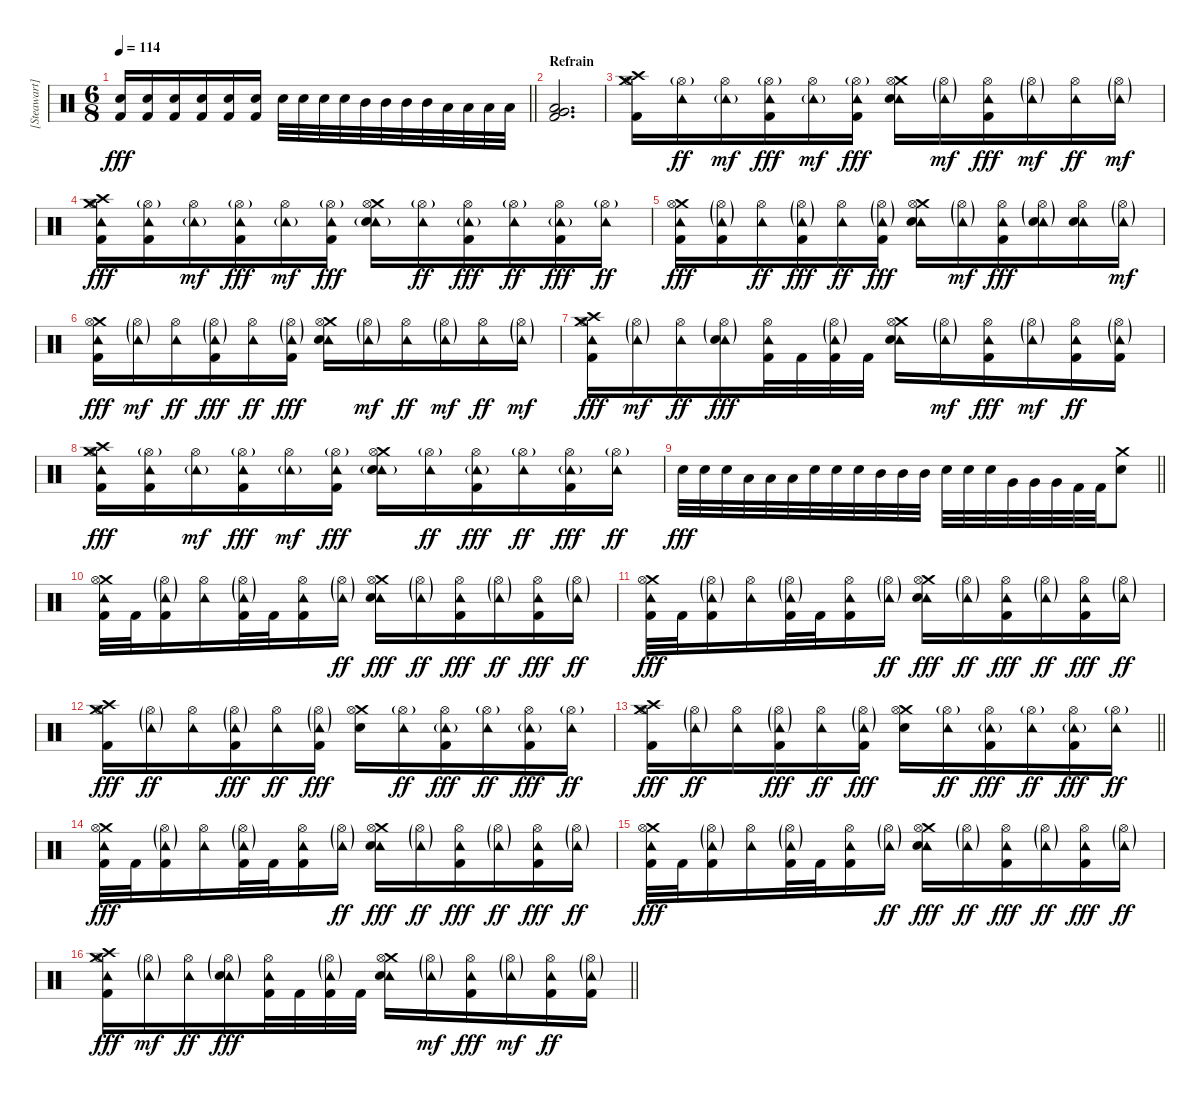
\track ("[Steawart] Drums" "[Steawart]") {solo instrument percussion}
\staff {score}
\articulation defaults
\ts (6 8)
\tempo 114
\clef neutral
\barLineRight lightlight
\ks c
("Electric Snare (hit)" "Kick (hit) 2").16{dy fff} ("Electric Snare (hit)" "Kick (hit) 2").16 ("Electric Snare (hit)" "Kick (hit) 2").16 ("Electric Snare (hit)" "Kick (hit) 2").16 ("Electric Snare (hit)" "Kick (hit) 2").16 ("Electric Snare (hit)" "Kick (hit) 2").16 "Electric Snare (hit)".32 "Electric Snare (hit)".32 "Electric Snare (hit)".32 "Electric Snare (hit)".32 "Mid Tom (hit)".32 "Mid Tom (hit)".32 "Mid Tom (hit)".32 "Mid Tom (hit)".32 "Low Tom (hit)".32 "Low Tom (hit)".32 "Low Tom (hit)".32 "Low Tom (hit)".32 |
\section ("" "Refrain ")
("Low Tom (hit)" "Very Low Tom (hit)" "Kick (hit) 2").2{d} |
("Crash medium (hit)" "Hi-Hat (open)" "Crash high (hit)" "Kick (hit) 2").16 ("Hi-Hat (open)"{g} "Tambourine (hit)").16{dy ff} ("Hi-Hat (open)" "Tambourine (hit)"{g}).16{dy mf} ("Hi-Hat (open)"{g} "Tambourine (hit)" "Kick (hit) 2").16{dy fff} ("Hi-Hat (open)" "Tambourine (hit)"{g}).16{dy mf} ("Hi-Hat (open)"{g} "Tambourine (hit)" "Kick (hit) 2").16{dy fff} ("Crash medium (hit)" "Hi-Hat (open)" "Tambourine (hit)" "Electric Snare (hit)").16 ("Hi-Hat (open)"{g} "Tambourine (hit)"{g}).16{dy mf} ("Hi-Hat (open)" "Tambourine (hit)" "Kick (hit) 2").16{dy fff} ("Hi-Hat (open)"{g} "Tambourine (hit)"{g}).16{dy mf} ("Hi-Hat (open)" "Tambourine (hit)").16{dy ff} ("Hi-Hat (open)"{g} "Tambourine (hit)"{g}).16{dy mf} |
("Crash medium (hit)" "Hi-Hat (open)" "Crash high (hit)" "Tambourine (hit)" "Kick (hit) 2").16{dy fff} ("Hi-Hat (open)"{g} "Tambourine (hit)" "Kick (hit) 2").16 ("Hi-Hat (open)" "Tambourine (hit)"{g}).16{dy mf} ("Hi-Hat (open)"{g} "Tambourine (hit)" "Kick (hit) 2").16{dy fff} ("Hi-Hat (open)" "Tambourine (hit)"{g}).16{dy mf} ("Hi-Hat (open)"{g} "Tambourine (hit)" "Kick (hit) 2").16{dy fff} ("Crash medium (hit)" "Hi-Hat (open)" "Tambourine (hit)"{g} "Electric Snare (hit)").16 ("Hi-Hat (open)"{g} "Tambourine (hit)").16{dy ff} ("Hi-Hat (open)" "Tambourine (hit)"{g} "Kick (hit) 2").16{dy fff} ("Hi-Hat (open)"{g} "Tambourine (hit)").16{dy ff} ("Hi-Hat (open)" "Tambourine (hit)"{g} "Kick (hit) 2").16{dy fff} ("Hi-Hat (open)"{g} "Tambourine (hit)").16{dy ff} |
("Crash medium (hit)" "Hi-Hat (open)" "Tambourine (hit)" "Kick (hit) 2").16{dy fff} ("Hi-Hat (open)"{g} "Tambourine (hit)"{g} "Kick (hit) 2").16 ("Hi-Hat (open)" "Tambourine (hit)").16{dy ff} ("Hi-Hat (open)"{g} "Tambourine (hit)"{g} "Kick (hit) 2").16{dy fff} ("Hi-Hat (open)" "Tambourine (hit)").16{dy ff} ("Hi-Hat (open)"{g} "Tambourine (hit)"{g} "Kick (hit) 2").16{dy fff} ("Crash medium (hit)" "Hi-Hat (open)" "Tambourine (hit)" "Electric Snare (hit)").16 ("Hi-Hat (open)"{g} "Tambourine (hit)"{g}).16{dy mf} ("Hi-Hat (open)" "Tambourine (hit)" "Kick (hit) 2").16{dy fff} ("Hi-Hat (open)"{g} "Tambourine (hit)"{g} "Electric Snare (hit)").16 ("Hi-Hat (open)" "Tambourine (hit)" "Electric Snare (hit)").16 ("Hi-Hat (open)"{g} "Tambourine (hit)"{g}).16{dy mf} |
("Crash medium (hit)" "Hi-Hat (open)" "Tambourine (hit)" "Kick (hit) 2").16{dy fff} ("Hi-Hat (open)"{g} "Tambourine (hit)"{g}).16{dy mf} ("Hi-Hat (open)" "Tambourine (hit)").16{dy ff} ("Hi-Hat (open)"{g} "Tambourine (hit)"{g} "Kick (hit) 2").16{dy fff} ("Hi-Hat (open)" "Tambourine (hit)").16{dy ff} ("Hi-Hat (open)"{g} "Tambourine (hit)"{g} "Kick (hit) 2").16{dy fff} ("Crash medium (hit)" "Hi-Hat (open)" "Tambourine (hit)" "Electric Snare (hit)").16 ("Hi-Hat (open)"{g} "Tambourine (hit)"{g}).16{dy mf} ("Hi-Hat (open)" "Tambourine (hit)").16{dy ff} ("Hi-Hat (open)"{g} "Tambourine (hit)"{g}).16{dy mf} ("Hi-Hat (open)" "Tambourine (hit)").16{dy ff} ("Hi-Hat (open)"{g} "Tambourine (hit)"{g}).16{dy mf} |
("Crash medium (hit)" "Hi-Hat (open)" "Crash high (hit)" "Tambourine (hit)" "Kick (hit) 2").16{dy fff} ("Hi-Hat (open)"{g} "Tambourine (hit)"{g}).16{dy mf} ("Hi-Hat (open)" "Tambourine (hit)").16{dy ff} ("Hi-Hat (open)"{g} "Tambourine (hit)"{g} "Electric Snare (hit)").16{dy fff} ("Hi-Hat (open)" "Tambourine (hit)" "Kick (hit) 2").32 "Kick (hit) 2".32 ("Hi-Hat (open)"{g} "Tambourine (hit)"{g} "Kick (hit) 2").32 "Kick (hit) 2".32 ("Crash medium (hit)" "Hi-Hat (open)" "Tambourine (hit)" "Electric Snare (hit)").16 ("Hi-Hat (open)"{g} "Tambourine (hit)"{g}).16{dy mf} ("Hi-Hat (open)" "Tambourine (hit)" "Kick (hit) 2").16{dy fff} ("Hi-Hat (open)"{g} "Tambourine (hit)"{g}).16{dy mf} ("Hi-Hat (open)" "Tambourine (hit)" "Kick (hit) 2").16{dy ff} ("Hi-Hat (open)"{g} "Tambourine (hit)"{g} "Kick (hit) 2").16 |
("Crash medium (hit)" "Hi-Hat (open)" "Crash high (hit)" "Tambourine (hit)" "Kick (hit) 2").16{dy fff} ("Hi-Hat (open)"{g} "Tambourine (hit)" "Kick (hit) 2").16 ("Hi-Hat (open)" "Tambourine (hit)"{g}).16{dy mf} ("Hi-Hat (open)"{g} "Tambourine (hit)" "Kick (hit) 2").16{dy fff} ("Hi-Hat (open)" "Tambourine (hit)"{g}).16{dy mf} ("Hi-Hat (open)"{g} "Tambourine (hit)" "Kick (hit) 2").16{dy fff} ("Crash medium (hit)" "Hi-Hat (open)" "Tambourine (hit)"{g} "Electric Snare (hit)").16 ("Hi-Hat (open)"{g} "Tambourine (hit)").16{dy ff} ("Hi-Hat (open)" "Tambourine (hit)"{g} "Kick (hit) 2").16{dy fff} ("Hi-Hat (open)"{g} "Tambourine (hit)").16{dy ff} ("Hi-Hat (open)" "Tambourine (hit)"{g} "Kick (hit) 2").16{dy fff} ("Hi-Hat (open)"{g} "Tambourine (hit)").16{dy ff} |
\barLineRight lightlight "Electric Snare (hit)".32{dy fff} "Electric Snare (hit)".32 "Electric Snare (hit)".32 "Low Tom (hit)".32 "Low Tom (hit)".32 "Low Tom (hit)".32 "Electric Snare (hit)".32 "Electric Snare (hit)".32 "Electric Snare (hit)".32 "Mid Tom (hit)".32 "Mid Tom (hit)".32 "Mid Tom (hit)".32 "Electric Snare (hit)".32 "Electric Snare (hit)".32 "Electric Snare (hit)".32 "Very Low Tom (hit)".32 "Very Low Tom (hit)".32 "Very Low Tom (hit)".32 "Kick (hit) 2".32 "Kick (hit) 2".32
("Crash medium (hit)" "Electric Snare (hit)").8 |
("Crash medium (hit)" "Hi-Hat (open)" "Tambourine (hit)" "Kick (hit) 2").32 "Kick (hit) 2".32 ("Hi-Hat (open)"{g} "Tambourine (hit)"{g} "Kick (hit) 2").16 ("Hi-Hat (open)" "Tambourine (hit)").16 ("Hi-Hat (open)"{g} "Tambourine (hit)"{g} "Kick (hit) 2").32 "Kick (hit) 2".32 ("Hi-Hat (open)" "Tambourine (hit)" "Kick (hit) 2").16 ("Hi-Hat (open)"{g} "Tambourine (hit)"{g}).16{dy ff} ("Crash medium (hit)" "Hi-Hat (open)" "Tambourine (hit)" "Electric Snare (hit)").16{dy fff} ("Hi-Hat (open)"{g} "Tambourine (hit)"{g}).16{dy ff} ("Hi-Hat (open)" "Tambourine (hit)" "Kick (hit) 2").16{dy fff} ("Hi-Hat (open)"{g} "Tambourine (hit)"{g}).16{dy ff} ("Hi-Hat (open)" "Tambourine (hit)" "Kick (hit) 2").16{dy fff} ("Hi-Hat (open)"{g} "Tambourine (hit)"{g}).16{dy ff} |
("Crash medium (hit)" "Hi-Hat (open)" "Tambourine (hit)" "Kick (hit) 2").32{dy fff} "Kick (hit) 2".32 ("Hi-Hat (open)"{g} "Tambourine (hit)"{g} "Kick (hit) 2").16 ("Hi-Hat (open)" "Tambourine (hit)").16 ("Hi-Hat (open)"{g} "Tambourine (hit)"{g} "Kick (hit) 2").32 "Kick (hit) 2".32 ("Hi-Hat (open)" "Tambourine (hit)" "Kick (hit) 2").16 ("Hi-Hat (open)"{g} "Tambourine (hit)"{g}).16{dy ff} ("Crash medium (hit)" "Hi-Hat (open)" "Tambourine (hit)" "Electric Snare (hit)").16{dy fff} ("Hi-Hat (open)"{g} "Tambourine (hit)"{g}).16{dy ff} ("Hi-Hat (open)" "Tambourine (hit)" "Kick (hit) 2").16{dy fff} ("Hi-Hat (open)"{g} "Tambourine (hit)"{g}).16{dy ff} ("Hi-Hat (open)" "Tambourine (hit)" "Kick (hit) 2").16{dy fff} ("Hi-Hat (open)"{g} "Tambourine (hit)"{g}).16{dy ff} |
("Crash medium (hit)" "Hi-Hat (open)" "Crash high (hit)" "Kick (hit) 2").16{dy fff} ("Hi-Hat (open)"{g} "Tambourine (hit)"{g}).16{dy ff} ("Hi-Hat (open)" "Tambourine (hit)").16 ("Hi-Hat (open)"{g} "Tambourine (hit)"{g} "Kick (hit) 2").16{dy fff} ("Hi-Hat (open)" "Tambourine (hit)").16{dy ff} ("Hi-Hat (open)"{g} "Tambourine (hit)"{g} "Kick (hit) 2").16{dy fff} ("Crash medium (hit)" "Hi-Hat (open)" "Electric Snare (hit)").16 ("Hi-Hat (open)"{g} "Tambourine (hit)").16{dy ff} ("Hi-Hat (open)" "Tambourine (hit)"{g} "Kick (hit) 2").16{dy fff} ("Hi-Hat (open)"{g} "Tambourine (hit)").16{dy ff} ("Hi-Hat (open)" "Tambourine (hit)"{g} "Kick (hit) 2").16{dy fff} ("Hi-Hat (open)"{g} "Tambourine (hit)").16{dy ff} |
\barLineRight lightlight
("Crash medium (hit)" "Hi-Hat (open)" "Crash high (hit)" "Kick (hit) 2").16{dy fff} ("Hi-Hat (open)"{g} "Tambourine (hit)"{g}).16{dy ff} ("Hi-Hat (open)" "Tambourine (hit)").16 ("Hi-Hat (open)"{g} "Tambourine (hit)"{g} "Kick (hit) 2").16{dy fff} ("Hi-Hat (open)" "Tambourine (hit)").16{dy ff} ("Hi-Hat (open)"{g} "Tambourine (hit)"{g} "Kick (hit) 2").16{dy fff} ("Crash medium (hit)" "Hi-Hat (open)" "Electric Snare (hit)").16 ("Hi-Hat (open)"{g} "Tambourine (hit)").16{dy ff} ("Hi-Hat (open)" "Tambourine (hit)"{g} "Kick (hit) 2").16{dy fff} ("Hi-Hat (open)"{g} "Tambourine (hit)").16{dy ff} ("Hi-Hat (open)" "Tambourine (hit)"{g} "Kick (hit) 2").16{dy fff} ("Hi-Hat (open)"{g} "Tambourine (hit)").16{dy ff} |
("Crash medium (hit)" "Hi-Hat (open)" "Tambourine (hit)" "Kick (hit) 2").32{dy fff} "Kick (hit) 2".32 ("Hi-Hat (open)"{g} "Tambourine (hit)"{g} "Kick (hit) 2").16 ("Hi-Hat (open)" "Tambourine (hit)").16 ("Hi-Hat (open)"{g} "Tambourine (hit)"{g} "Kick (hit) 2").32 "Kick (hit) 2".32 ("Hi-Hat (open)" "Tambourine (hit)" "Kick (hit) 2").16 ("Hi-Hat (open)"{g} "Tambourine (hit)"{g}).16{dy ff} ("Crash medium (hit)" "Hi-Hat (open)" "Tambourine (hit)" "Electric Snare (hit)").16{dy fff} ("Hi-Hat (open)"{g} "Tambourine (hit)"{g}).16{dy ff} ("Hi-Hat (open)" "Tambourine (hit)" "Kick (hit) 2").16{dy fff} ("Hi-Hat (open)"{g} "Tambourine (hit)"{g}).16{dy ff} ("Hi-Hat (open)" "Tambourine (hit)" "Kick (hit) 2").16{dy fff} ("Hi-Hat (open)"{g} "Tambourine (hit)"{g}).16{dy ff} |
("Crash medium (hit)" "Hi-Hat (open)" "Tambourine (hit)" "Kick (hit) 2").32{dy fff} "Kick (hit) 2".32 ("Hi-Hat (open)"{g} "Tambourine (hit)"{g} "Kick (hit) 2").16 ("Hi-Hat (open)" "Tambourine (hit)").16 ("Hi-Hat (open)"{g} "Tambourine (hit)"{g} "Kick (hit) 2").32 "Kick (hit) 2".32 ("Hi-Hat (open)" "Tambourine (hit)" "Kick (hit) 2").16 ("Hi-Hat (open)"{g} "Tambourine (hit)"{g}).16{dy ff} ("Crash medium (hit)" "Hi-Hat (open)" "Tambourine (hit)" "Electric Snare (hit)").16{dy fff} ("Hi-Hat (open)"{g} "Tambourine (hit)"{g}).16{dy ff} ("Hi-Hat (open)" "Tambourine (hit)" "Kick (hit) 2").16{dy fff} ("Hi-Hat (open)"{g} "Tambourine (hit)"{g}).16{dy ff} ("Hi-Hat (open)" "Tambourine (hit)" "Kick (hit) 2").16{dy fff} ("Hi-Hat (open)"{g} "Tambourine (hit)"{g}).16{dy ff} |
\barLineRight lightlight
("Crash medium (hit)" "Hi-Hat (open)" "Crash high (hit)" "Tambourine (hit)" "Kick (hit) 2").16{dy fff} ("Hi-Hat (open)"{g} "Tambourine (hit)"{g}).16{dy mf} ("Hi-Hat (open)" "Tambourine (hit)").16{dy ff} ("Hi-Hat (open)"{g} "Tambourine (hit)"{g} "Electric Snare (hit)").16{dy fff} ("Hi-Hat (open)" "Tambourine (hit)" "Kick (hit) 2").32 "Kick (hit) 2".32 ("Hi-Hat (open)"{g} "Tambourine (hit)"{g} "Kick (hit) 2").32 "Kick (hit) 2".32 ("Crash medium (hit)" "Hi-Hat (open)" "Tambourine (hit)" "Electric Snare (hit)").16 ("Hi-Hat (open)"{g} "Tambourine (hit)"{g}).16{dy mf} ("Hi-Hat (open)" "Tambourine (hit)" "Kick (hit) 2").16{dy fff} ("Hi-Hat (open)"{g} "Tambourine (hit)"{g}).16{dy mf} ("Hi-Hat (open)" "Tambourine (hit)" "Kick (hit) 2").16{dy ff} ("Hi-Hat (open)"{g} "Tambourine (hit)"{g} "Kick (hit) 2").16
